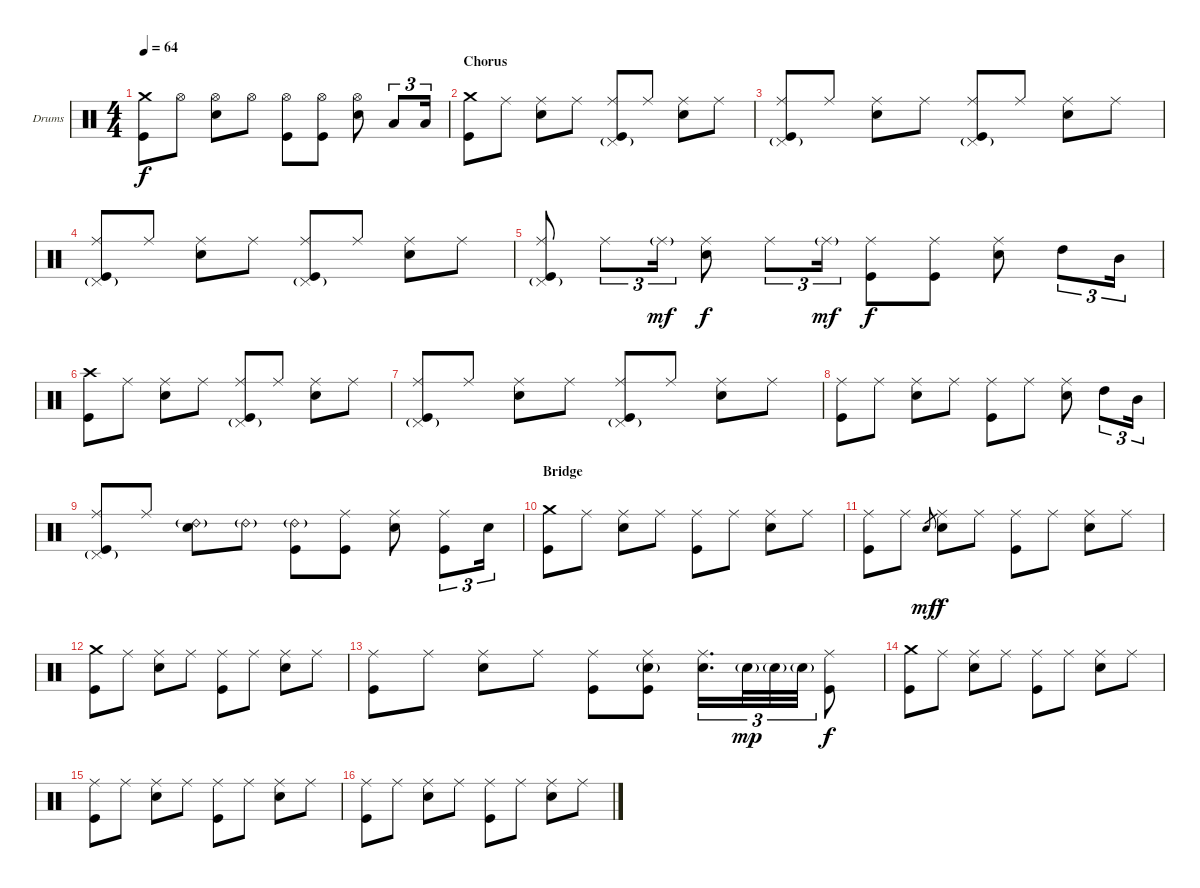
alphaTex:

\bracketExtendMode groupsimilarinstruments
\firstSystemTrackNameOrientation horizontal
\otherSystemsTrackNameOrientation horizontal
\track ("Drumkit" "Drums") {instrument percussion}
\staff {score}
\articulation defaults
\ts (4 4)
\tempo 64
\clef neutral
\ks c
("Crash medium (hit)" "Kick (hit)").8{dy f} "Hi-Hat (open)".8 ("Hi-Hat (open)" "Snare (hit) 2").8 "Hi-Hat (open)".8 ("Hi-Hat (open)" "Kick (hit)").8 ("Hi-Hat (open)" "Kick (hit)").8 ("Hi-Hat (open)" "Snare (hit) 2").8 "Low Tom (hit)".8{tu (3 2)} "Low Tom (hit)".16{tu (3 2)} |
\section ("" "Chorus")
("Crash medium (hit)" "Kick (hit)").8 "Ride (middle)".8 ("Ride (middle)" "Snare (hit) 2").8 "Ride (middle)".8 ("Ride (middle)" "Pedal Hi-Hat (hit)"{g} "Kick (hit)").8 "Ride (middle)".8 ("Ride (middle)" "Snare (hit) 2").8 "Ride (middle)".8 |
("Ride (middle)" "Pedal Hi-Hat (hit)"{g} "Kick (hit)").8 "Ride (middle)".8 ("Ride (middle)" "Snare (hit) 2").8 "Ride (middle)".8 ("Ride (middle)" "Pedal Hi-Hat (hit)"{g} "Kick (hit)").8 "Ride (middle)".8 ("Ride (middle)" "Snare (hit) 2").8 "Ride (middle)".8 |
("Ride (middle)" "Pedal Hi-Hat (hit)"{g} "Kick (hit)").8 "Ride (middle)".8 ("Ride (middle)" "Snare (hit) 2").8 "Ride (middle)".8 ("Ride (middle)" "Pedal Hi-Hat (hit)"{g} "Kick (hit)").8 "Ride (middle)".8 ("Ride (middle)" "Snare (hit) 2").8 "Ride (middle)".8 |
("Ride (middle)" "Pedal Hi-Hat (hit)"{g} "Kick (hit)").8 "Ride (middle)".8{tu (3 2)} "Ride (middle)"{g}.16{tu (3 2) dy mf} ("Ride (middle)" "Snare (hit) 2").8{dy f} "Ride (middle)".8{tu (3 2)} "Ride (middle)"{g}.16{tu (3 2) dy mf} ("Ride (middle)" "Kick (hit)").8{dy f} ("Ride (middle)" "Kick (hit)").8 ("Ride (middle)" "Snare (hit) 2").8 "High Tom (hit)".8{tu (3 2)} "Mid Tom (hit)".16{tu (3 2)} |
("Crash high (hit)" "Kick (hit)").8 "Ride (middle)".8 ("Ride (middle)" "Snare (hit) 2").8 "Ride (middle)".8 ("Ride (middle)" "Pedal Hi-Hat (hit)"{g} "Kick (hit)").8 "Ride (middle)".8 ("Ride (middle)" "Snare (hit) 2").8 "Ride (middle)".8 |
("Ride (middle)" "Pedal Hi-Hat (hit)"{g} "Kick (hit)").8 "Ride (middle)".8 ("Ride (middle)" "Snare (hit) 2").8 "Ride (middle)".8 ("Ride (middle)" "Pedal Hi-Hat (hit)"{g} "Kick (hit)").8 "Ride (middle)".8 ("Ride (middle)" "Snare (hit) 2").8 "Ride (middle)".8 |
("Ride (middle)" "Kick (hit)").8 "Ride (middle)".8 ("Ride (middle)" "Snare (hit) 2").8 "Ride (middle)".8 ("Ride (middle)" "Kick (hit)").8 "Ride (middle)".8 ("Ride (middle)" "Snare (hit) 2").8 "High Tom (hit)".8{tu (3 2)} "Mid Tom (hit)".16{tu (3 2)} |
("Ride (middle)" "Pedal Hi-Hat (hit)"{g} "Kick (hit)").8 "Ride (middle)".8 ("Ride (bell) 2"{g} "Snare (hit) 2").8 "Ride (bell) 2"{g}.8 ("Ride (bell) 2"{g} "Kick (hit)").8 ("Ride (middle)" "Kick (hit)").8 ("Ride (middle)" "Snare (hit) 2").8 ("Ride (middle)" "Kick (hit)").8{tu (3 2)} "Snare (hit) 2".16{tu (3 2)} |
\section ("" "Bridge")
("Crash medium (hit)" "Kick (hit)").8 "Ride (middle)".8 ("Ride (middle)" "Snare (hit) 2").8 "Ride (middle)".8 ("Ride (middle)" "Kick (hit)").8 "Ride (middle)".8 ("Ride (middle)" "Snare (hit) 2").8 "Ride (middle)".8 |
("Ride (middle)" "Kick (hit)").8 "Ride (middle)".8 "Snare (hit) 2".8{gr dy mf} ("Ride (middle)" "Snare (hit) 2").8{dy f} "Ride (middle)".8 ("Ride (middle)" "Kick (hit)").8 "Ride (middle)".8 ("Ride (middle)" "Snare (hit) 2").8 "Ride (middle)".8 |
("Crash medium (hit)" "Kick (hit)").8 "Ride (middle)".8 ("Ride (middle)" "Snare (hit) 2").8 "Ride (middle)".8 ("Ride (middle)" "Kick (hit)").8 "Ride (middle)".8 ("Ride (middle)" "Snare (hit) 2").8 "Ride (middle)".8 |
("Ride (middle)" "Kick (hit)").8 "Ride (middle)".8 ("Ride (middle)" "Snare (hit) 2").8 "Ride (middle)".8 ("Ride (middle)" "Kick (hit)").8 ("Ride (middle)" "Snare (hit) 2"{g} "Kick (hit)").8 ("Ride (middle)" "Snare (hit) 2").16{d tu (3 2)} "Snare (hit) 2"{g}.32{tu (3 2) dy mp} "Snare (hit) 2"{g}.32{tu (3 2)} "Snare (hit) 2"{g}.32{tu (3 2)} ("Ride (middle)" "Kick (hit)").8{dy f} |
("Crash medium (hit)" "Kick (hit)").8 "Ride (middle)".8 ("Ride (middle)" "Snare (hit) 2").8 "Ride (middle)".8 ("Ride (middle)" "Kick (hit)").8 "Ride (middle)".8 ("Ride (middle)" "Snare (hit) 2").8 "Ride (middle)".8 |
("Ride (middle)" "Kick (hit)").8 "Ride (middle)".8 ("Ride (middle)" "Snare (hit) 2").8 "Ride (middle)".8 ("Ride (middle)" "Kick (hit)").8 "Ride (middle)".8 ("Ride (middle)" "Snare (hit) 2").8 "Ride (middle)".8 |
("Ride (middle)" "Kick (hit)").8 "Ride (middle)".8 ("Ride (middle)" "Snare (hit) 2").8 "Ride (middle)".8 ("Ride (middle)" "Kick (hit)").8 "Ride (middle)".8 ("Ride (middle)" "Snare (hit) 2").8 "Ride (middle)".8
